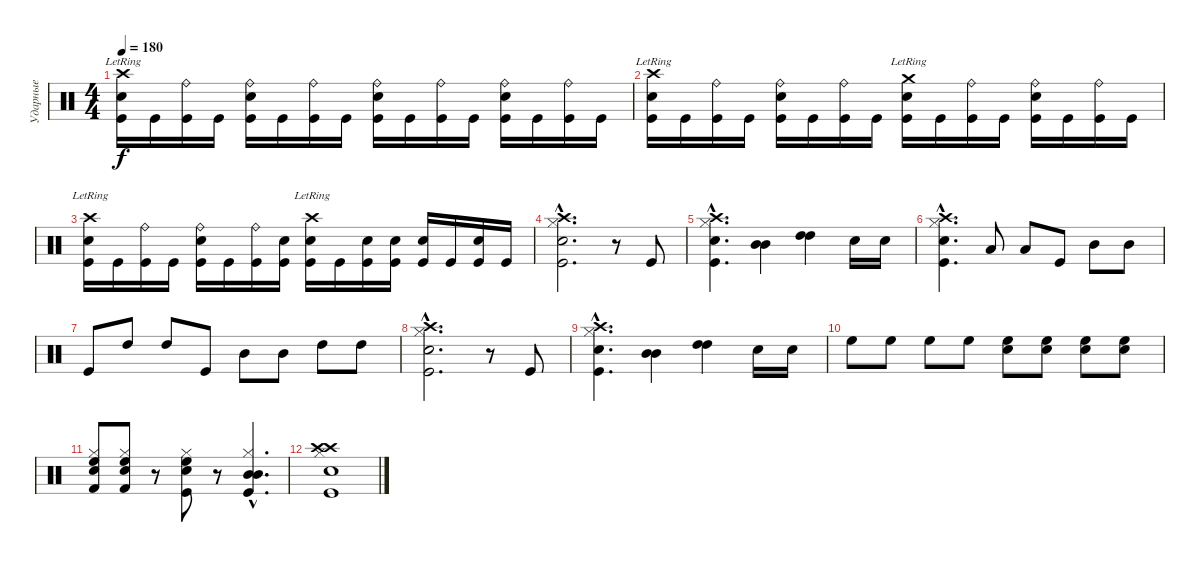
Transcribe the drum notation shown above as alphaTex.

\track ("Ударные" "Ударные") {instrument percussion}
\staff {score}
\articulation defaults
\ts (4 4)
\tempo 180
\clef neutral
\ks c
("Crash high (hit)"{lr} "Electric Snare (hit)" "Kick (hit)").16{dy f} "Kick (hit)".16 ("Ride (bell)" "Kick (hit)").16 "Kick (hit)".16 ("Ride (bell)" "Electric Snare (hit)" "Kick (hit)").16 "Kick (hit)".16 ("Ride (bell)" "Kick (hit)").16 "Kick (hit)".16 ("Ride (bell)" "Electric Snare (hit)" "Kick (hit)").16 "Kick (hit)".16 ("Ride (bell)" "Kick (hit)").16 "Kick (hit)".16 ("Ride (bell)" "Electric Snare (hit)" "Kick (hit)").16 "Kick (hit)".16 ("Ride (bell)" "Kick (hit)").16 "Kick (hit)".16 |
("Crash high (hit)"{lr} "Electric Snare (hit)" "Kick (hit)").16 "Kick (hit)".16 ("Ride (bell)" "Kick (hit)").16 "Kick (hit)".16 ("Ride (bell)" "Electric Snare (hit)" "Kick (hit)").16 "Kick (hit)".16 ("Ride (bell)" "Kick (hit)").16 "Kick (hit)".16 ("Crash medium (hit)"{lr} "Electric Snare (hit)" "Kick (hit)").16 "Kick (hit)".16 ("Ride (bell)" "Kick (hit)").16 "Kick (hit)".16 ("Ride (bell)" "Electric Snare (hit)" "Kick (hit)").16 "Kick (hit)".16 ("Ride (bell)" "Kick (hit)").16 "Kick (hit)".16 |
("Crash high (hit)"{lr} "Electric Snare (hit)" "Kick (hit)").16 "Kick (hit)".16 ("Ride (bell)" "Kick (hit)").16 "Kick (hit)".16 ("Ride (bell)" "Electric Snare (hit)" "Kick (hit)").16 "Kick (hit)".16 ("Ride (bell)" "Kick (hit)").16 ("Electric Snare (hit)" "Kick (hit)").16 ("Crash high (hit)"{lr} "Electric Snare (hit)" "Kick (hit)").16 "Kick (hit)".16 ("Electric Snare (hit)" "Kick (hit)").16 ("Electric Snare (hit)" "Kick (hit)").16 ("Electric Snare (hit)" "Kick (hit)").16 "Kick (hit)".16 ("Electric Snare (hit)" "Kick (hit)").16 "Kick (hit)".16 |
("Crash high (hit)"{hac} "Hi-Hat (closed)"{hac} "Electric Snare (hit)"{hac} "Kick (hit)"{hac}).2{d} r.8 "Kick (hit)".8 |
("Crash high (hit)"{hac} "Hi-Hat (closed)"{hac} "Electric Snare (hit)"{hac} "Kick (hit)"{hac}).4{d} ("Mid Tom (hit)" "Mid Tom (hit)").4 ("High Tom (hit)" "High Tom (hit)").4 "Electric Snare (hit)".16 "Electric Snare (hit)".16 |
("Crash high (hit)"{hac} "Hi-Hat (closed)"{hac} "Electric Snare (hit)"{hac} "Kick (hit)"{hac}).4{d} "Low Tom (hit)".8 "Low Tom (hit)".8 "Kick (hit)".8 "Mid Tom (hit)".8 "Mid Tom (hit)".8 |
"Kick (hit)".8 "High Tom (hit)".8 "High Tom (hit)".8 "Kick (hit)".8 "Mid Tom (hit)".8 "Mid Tom (hit)".8 "High Tom (hit)".8 "High Tom (hit)".8 |
("Crash high (hit)"{hac} "Hi-Hat (closed)"{hac} "Electric Snare (hit)"{hac} "Kick (hit)"{hac}).2{d} r.8 "Kick (hit)".8 |
("Crash high (hit)"{hac} "Hi-Hat (closed)"{hac} "Electric Snare (hit)"{hac} "Kick (hit)"{hac}).4{d} ("Mid Tom (hit)" "Mid Tom (hit)").4 ("High Tom (hit)" "High Tom (hit)").4 "Electric Snare (hit)".16 "Electric Snare (hit)".16 |
"High Floor Tom (hit)".8 "High Floor Tom (hit)".8 "High Floor Tom (hit)".8 "High Floor Tom (hit)".8 ("Electric Snare (hit)" "High Floor Tom (hit)").8 ("Electric Snare (hit)" "High Floor Tom (hit)").8 ("Electric Snare (hit)" "High Floor Tom (hit)").8 ("Electric Snare (hit)" "High Floor Tom (hit)").8 |
("Hi-Hat (closed)" "Electric Snare (hit)" "High Floor Tom (hit)" "Kick (hit) 2").8 ("Hi-Hat (closed)" "Electric Snare (hit)" "High Floor Tom (hit)" "Kick (hit) 2").8 r.8 ("Hi-Hat (closed)" "Electric Snare (hit)" "High Floor Tom (hit)" "Kick (hit)").8 r.8 ("Hi-Hat (closed)"{hac} "Mid Tom (hit)"{hac} "Mid Tom (hit)"{hac} "Kick (hit)"{hac}).4{d} |
("Crash high (hit)" "Crash high (hit)" "Hi-Hat (closed)" "Electric Snare (hit)" "Kick (hit)").1
